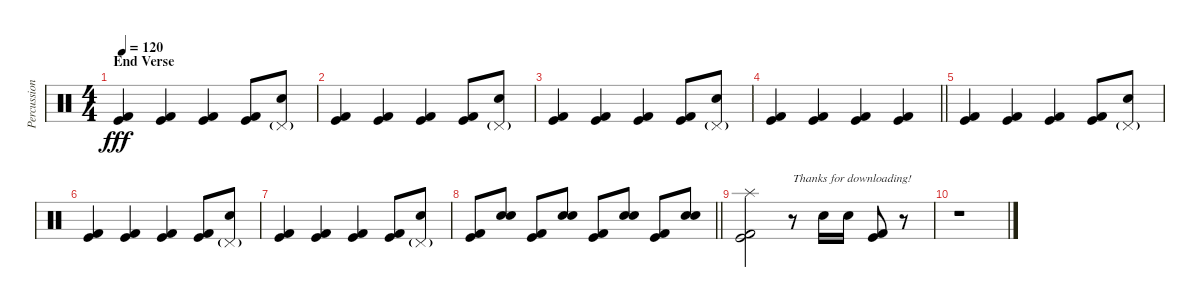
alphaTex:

\track ("Percussion" "Percussion") {instrument percussion}
\staff {score}
\articulation defaults
\ts (4 4)
\section ("" "End Verse")
\tempo 120
\clef neutral
\ks c
("Kick (hit)" "Kick (hit) 2").4{dy fff} ("Kick (hit)" "Kick (hit) 2").4 ("Kick (hit)" "Kick (hit) 2").4 ("Kick (hit)" "Kick (hit) 2").8 ("Pedal Hi-Hat (hit)"{g} "Snare (hit) 2").8 |
("Kick (hit)" "Kick (hit) 2").4 ("Kick (hit)" "Kick (hit) 2").4 ("Kick (hit)" "Kick (hit) 2").4 ("Kick (hit)" "Kick (hit) 2").8 ("Pedal Hi-Hat (hit)"{g} "Snare (hit) 2").8 |
("Kick (hit)" "Kick (hit) 2").4 ("Kick (hit)" "Kick (hit) 2").4 ("Kick (hit)" "Kick (hit) 2").4 ("Kick (hit)" "Kick (hit) 2").8 ("Pedal Hi-Hat (hit)"{g} "Snare (hit) 2").8 |
\barLineRight lightlight
("Kick (hit)" "Kick (hit) 2").4 ("Kick (hit)" "Kick (hit) 2").4 ("Kick (hit)" "Kick (hit) 2").4 ("Kick (hit)" "Kick (hit) 2").4 |
("Kick (hit)" "Kick (hit) 2").4 ("Kick (hit)" "Kick (hit) 2").4 ("Kick (hit)" "Kick (hit) 2").4 ("Kick (hit)" "Kick (hit) 2").8 ("Pedal Hi-Hat (hit)"{g} "Snare (hit) 2").8 |
("Kick (hit)" "Kick (hit) 2").4 ("Kick (hit)" "Kick (hit) 2").4 ("Kick (hit)" "Kick (hit) 2").4 ("Kick (hit)" "Kick (hit) 2").8 ("Pedal Hi-Hat (hit)"{g} "Snare (hit) 2").8 |
("Kick (hit)" "Kick (hit) 2").4 ("Kick (hit)" "Kick (hit) 2").4 ("Kick (hit)" "Kick (hit) 2").4 ("Kick (hit)" "Kick (hit) 2").8 ("Pedal Hi-Hat (hit)"{g} "Snare (hit) 2").8 |
\barLineRight lightlight
("Kick (hit)" "Kick (hit) 2").8 ("Electric Snare (hit)" "Snare (hit) 2").8 ("Kick (hit)" "Kick (hit) 2").8 ("Electric Snare (hit)" "Snare (hit) 2").8 ("Kick (hit)" "Kick (hit) 2").8 ("Electric Snare (hit)" "Snare (hit) 2").8 ("Kick (hit)" "Kick (hit) 2").8 ("Electric Snare (hit)" "Snare (hit) 2").8 |
("Splash (hit)" "Kick (hit)" "Kick (hit) 2").2 r.8{txt "Thanks for downloading!"} "Snare (hit) 2".16 "Electric Snare (hit)".16 ("Kick (hit)" "Kick (hit) 2").8 r.8 |
r.1
